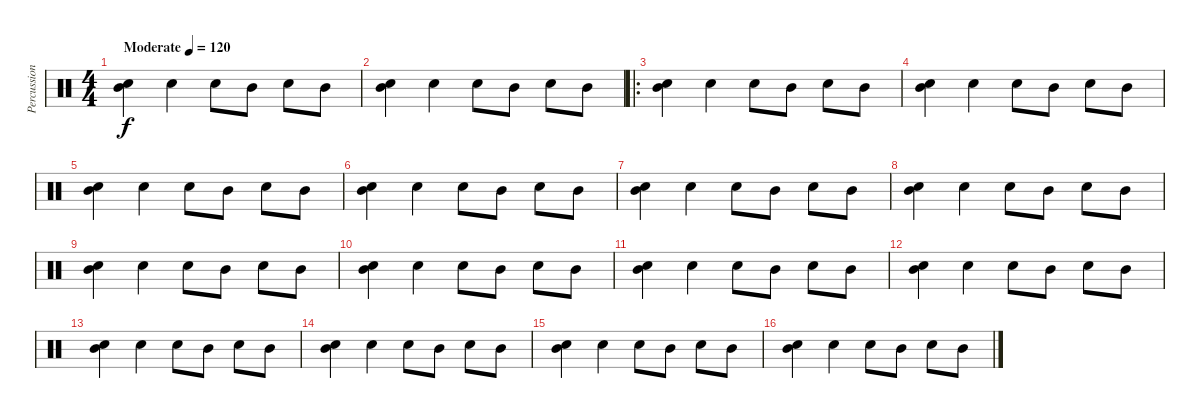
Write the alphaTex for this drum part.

\track ("Percussion" "Percussion") {instrument percussion}
\staff {score}
\articulation defaults
\ts (4 4)
\tempo (120 "Moderate")
\clef neutral
\ks c
("Electric Snare (hit)" "Mid Tom (hit)").4{dy f} "Electric Snare (hit)".4 "Electric Snare (hit)".8 "Mid Tom (hit)".8 "Electric Snare (hit)".8 "Mid Tom (hit)".8 |
("Electric Snare (hit)" "Mid Tom (hit)").4 "Electric Snare (hit)".4 "Electric Snare (hit)".8 "Mid Tom (hit)".8 "Electric Snare (hit)".8 "Mid Tom (hit)".8 |
\ro
("Electric Snare (hit)" "Mid Tom (hit)").4 "Electric Snare (hit)".4 "Electric Snare (hit)".8 "Mid Tom (hit)".8 "Electric Snare (hit)".8 "Mid Tom (hit)".8 |
("Electric Snare (hit)" "Mid Tom (hit)").4 "Electric Snare (hit)".4 "Electric Snare (hit)".8 "Mid Tom (hit)".8 "Electric Snare (hit)".8 "Mid Tom (hit)".8 |
("Electric Snare (hit)" "Mid Tom (hit)").4 "Electric Snare (hit)".4 "Electric Snare (hit)".8 "Mid Tom (hit)".8 "Electric Snare (hit)".8 "Mid Tom (hit)".8 |
("Electric Snare (hit)" "Mid Tom (hit)").4 "Electric Snare (hit)".4 "Electric Snare (hit)".8 "Mid Tom (hit)".8 "Electric Snare (hit)".8 "Mid Tom (hit)".8 |
("Electric Snare (hit)" "Mid Tom (hit)").4 "Electric Snare (hit)".4 "Electric Snare (hit)".8 "Mid Tom (hit)".8 "Electric Snare (hit)".8 "Mid Tom (hit)".8 |
("Electric Snare (hit)" "Mid Tom (hit)").4 "Electric Snare (hit)".4 "Electric Snare (hit)".8 "Mid Tom (hit)".8 "Electric Snare (hit)".8 "Mid Tom (hit)".8 |
("Electric Snare (hit)" "Mid Tom (hit)").4 "Electric Snare (hit)".4 "Electric Snare (hit)".8 "Mid Tom (hit)".8 "Electric Snare (hit)".8 "Mid Tom (hit)".8 |
("Electric Snare (hit)" "Mid Tom (hit)").4 "Electric Snare (hit)".4 "Electric Snare (hit)".8 "Mid Tom (hit)".8 "Electric Snare (hit)".8 "Mid Tom (hit)".8 |
("Electric Snare (hit)" "Mid Tom (hit)").4 "Electric Snare (hit)".4 "Electric Snare (hit)".8 "Mid Tom (hit)".8 "Electric Snare (hit)".8 "Mid Tom (hit)".8 |
("Electric Snare (hit)" "Mid Tom (hit)").4 "Electric Snare (hit)".4 "Electric Snare (hit)".8 "Mid Tom (hit)".8 "Electric Snare (hit)".8 "Mid Tom (hit)".8 |
("Electric Snare (hit)" "Mid Tom (hit)").4 "Electric Snare (hit)".4 "Electric Snare (hit)".8 "Mid Tom (hit)".8 "Electric Snare (hit)".8 "Mid Tom (hit)".8 |
("Electric Snare (hit)" "Mid Tom (hit)").4 "Electric Snare (hit)".4 "Electric Snare (hit)".8 "Mid Tom (hit)".8 "Electric Snare (hit)".8 "Mid Tom (hit)".8 |
("Electric Snare (hit)" "Mid Tom (hit)").4 "Electric Snare (hit)".4 "Electric Snare (hit)".8 "Mid Tom (hit)".8 "Electric Snare (hit)".8 "Mid Tom (hit)".8 |
("Electric Snare (hit)" "Mid Tom (hit)").4 "Electric Snare (hit)".4 "Electric Snare (hit)".8 "Mid Tom (hit)".8 "Electric Snare (hit)".8 "Mid Tom (hit)".8
